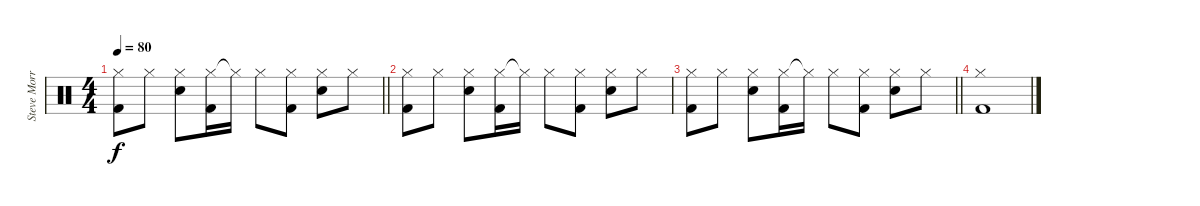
\track ("Steve Morris" "Steve Morr") {instrument percussion}
\staff {score}
\articulation defaults
\ts (4 4)
\tempo 80
\clef neutral
\barLineRight lightlight
\ks c
("Hi-Hat (closed)" "Kick (hit) 2").8{dy f} "Hi-Hat (closed)".8 ("Hi-Hat (closed)" "Electric Snare (hit)").8 ("Hi-Hat (closed)" "Kick (hit) 2").16 "Hi-Hat (closed)"{t}.16 "Hi-Hat (closed)".8 ("Hi-Hat (closed)" "Kick (hit) 2").8 ("Hi-Hat (closed)" "Electric Snare (hit)").8 "Hi-Hat (closed)".8 |
("Hi-Hat (closed)" "Kick (hit) 2").8 "Hi-Hat (closed)".8 ("Hi-Hat (closed)" "Electric Snare (hit)").8 ("Hi-Hat (closed)" "Kick (hit) 2").16 "Hi-Hat (closed)"{t}.16 "Hi-Hat (closed)".8 ("Hi-Hat (closed)" "Kick (hit) 2").8 ("Hi-Hat (closed)" "Electric Snare (hit)").8 "Hi-Hat (closed)".8 |
\barLineRight lightlight
("Hi-Hat (closed)" "Kick (hit) 2").8 "Hi-Hat (closed)".8 ("Hi-Hat (closed)" "Electric Snare (hit)").8 ("Hi-Hat (closed)" "Kick (hit) 2").16 "Hi-Hat (closed)"{t}.16 "Hi-Hat (closed)".8 ("Hi-Hat (closed)" "Kick (hit) 2").8 ("Hi-Hat (closed)" "Electric Snare (hit)").8 "Hi-Hat (closed)".8 |
("Hi-Hat (closed)" "Kick (hit) 2").1
